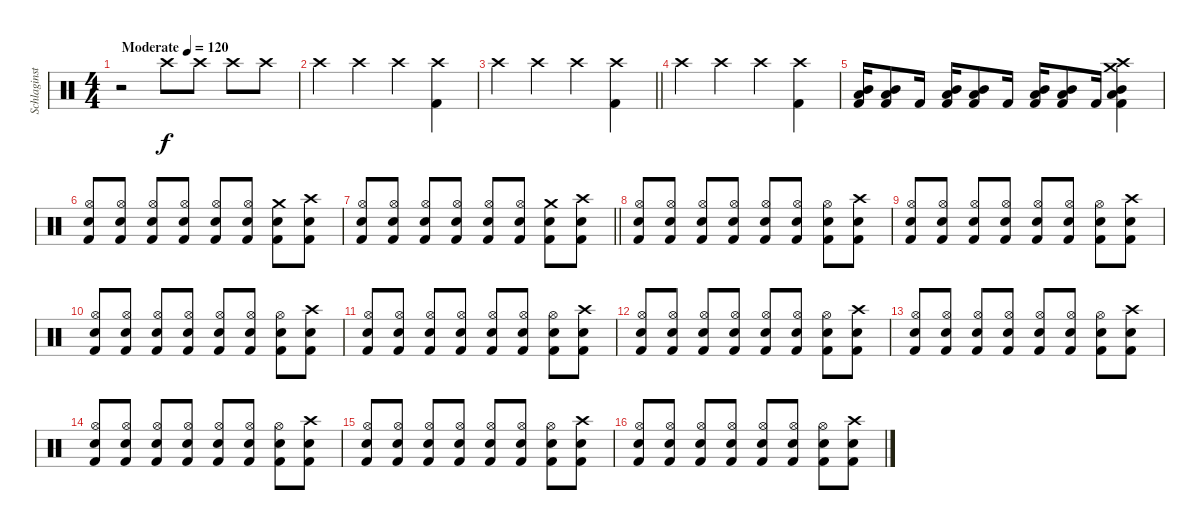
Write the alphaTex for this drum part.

\track ("Schlaginstrumente - Auswahl" "Schlaginst") {instrument percussion}
\staff {score}
\articulation defaults
\ts (4 4)
\tempo (120 "Moderate")
\clef neutral
\ks c
r.2{dy f} "Crash high (hit)".8 "Crash high (hit)".8 "Crash high (hit)".8 "Crash high (hit)".8 |
"Crash high (hit)".4 "Crash high (hit)".4 "Crash high (hit)".4 ("Crash high (hit)" "Kick (hit) 2").4 |
\barLineRight lightlight "Crash high (hit)".4 "Crash high (hit)".4 "Crash high (hit)".4
("Crash high (hit)" "Kick (hit) 2").4 |
"Crash high (hit)".4 "Crash high (hit)".4 "Crash high (hit)".4 ("Crash high (hit)" "Kick (hit) 2").4 |
("Low Tom (hit)" "Mid Tom (hit)" "Kick (hit) 2").16 ("Low Tom (hit)" "Mid Tom (hit)" "Kick (hit) 2").8 "Kick (hit) 2".16 ("Low Tom (hit)" "Mid Tom (hit)" "Kick (hit) 2").16 ("Low Tom (hit)" "Mid Tom (hit)" "Kick (hit) 2").8 "Kick (hit) 2".16 ("Low Tom (hit)" "Mid Tom (hit)" "Kick (hit) 2").16 ("Low Tom (hit)" "Mid Tom (hit)" "Kick (hit) 2").8 "Kick (hit) 2".16 ("Crash medium (hit)" "Crash high (hit)" "Low Tom (hit)" "Mid Tom (hit)" "Kick (hit) 2").4 |
("Hi-Hat (open)" "Snare (hit) 2" "Kick (hit) 2").8 ("Hi-Hat (open)" "Snare (hit) 2" "Kick (hit) 2").8 ("Hi-Hat (open)" "Snare (hit) 2" "Kick (hit) 2").8 ("Hi-Hat (open)" "Snare (hit) 2" "Kick (hit) 2").8 ("Hi-Hat (open)" "Snare (hit) 2" "Kick (hit) 2").8 ("Hi-Hat (open)" "Snare (hit) 2" "Kick (hit) 2").8 ("Crash medium (hit)" "Snare (hit) 2" "Kick (hit) 2").8 ("Crash high (hit)" "Snare (hit) 2" "Kick (hit) 2").8 |
\barLineRight lightlight
("Hi-Hat (open)" "Snare (hit) 2" "Kick (hit) 2").8 ("Hi-Hat (open)" "Snare (hit) 2" "Kick (hit) 2").8 ("Hi-Hat (open)" "Snare (hit) 2" "Kick (hit) 2").8 ("Hi-Hat (open)" "Snare (hit) 2" "Kick (hit) 2").8 ("Hi-Hat (open)" "Snare (hit) 2" "Kick (hit) 2").8 ("Hi-Hat (open)" "Snare (hit) 2" "Kick (hit) 2").8 ("Crash medium (hit)" "Snare (hit) 2" "Kick (hit) 2").8 ("Crash high (hit)" "Snare (hit) 2" "Kick (hit) 2").8 |
("Hi-Hat (open)" "Snare (hit) 2" "Kick (hit) 2").8 ("Hi-Hat (open)" "Snare (hit) 2" "Kick (hit) 2").8 ("Hi-Hat (open)" "Snare (hit) 2" "Kick (hit) 2").8 ("Hi-Hat (open)" "Snare (hit) 2" "Kick (hit) 2").8 ("Hi-Hat (open)" "Snare (hit) 2" "Kick (hit) 2").8 ("Hi-Hat (open)" "Snare (hit) 2" "Kick (hit) 2").8 ("Hi-Hat (open)" "Snare (hit) 2" "Kick (hit) 2").8 ("Crash high (hit)" "Snare (hit) 2" "Kick (hit) 2").8 |
("Hi-Hat (open)" "Snare (hit) 2" "Kick (hit) 2").8 ("Hi-Hat (open)" "Snare (hit) 2" "Kick (hit) 2").8 ("Hi-Hat (open)" "Snare (hit) 2" "Kick (hit) 2").8 ("Hi-Hat (open)" "Snare (hit) 2" "Kick (hit) 2").8 ("Hi-Hat (open)" "Snare (hit) 2" "Kick (hit) 2").8 ("Hi-Hat (open)" "Snare (hit) 2" "Kick (hit) 2").8 ("Hi-Hat (open)" "Snare (hit) 2" "Kick (hit) 2").8 ("Crash high (hit)" "Snare (hit) 2" "Kick (hit) 2").8 |
("Hi-Hat (open)" "Snare (hit) 2" "Kick (hit) 2").8 ("Hi-Hat (open)" "Snare (hit) 2" "Kick (hit) 2").8 ("Hi-Hat (open)" "Snare (hit) 2" "Kick (hit) 2").8 ("Hi-Hat (open)" "Snare (hit) 2" "Kick (hit) 2").8 ("Hi-Hat (open)" "Snare (hit) 2" "Kick (hit) 2").8 ("Hi-Hat (open)" "Snare (hit) 2" "Kick (hit) 2").8 ("Hi-Hat (open)" "Snare (hit) 2" "Kick (hit) 2").8 ("Crash high (hit)" "Snare (hit) 2" "Kick (hit) 2").8 |
("Hi-Hat (open)" "Snare (hit) 2" "Kick (hit) 2").8 ("Hi-Hat (open)" "Snare (hit) 2" "Kick (hit) 2").8 ("Hi-Hat (open)" "Snare (hit) 2" "Kick (hit) 2").8 ("Hi-Hat (open)" "Snare (hit) 2" "Kick (hit) 2").8 ("Hi-Hat (open)" "Snare (hit) 2" "Kick (hit) 2").8 ("Hi-Hat (open)" "Snare (hit) 2" "Kick (hit) 2").8 ("Hi-Hat (open)" "Snare (hit) 2" "Kick (hit) 2").8 ("Crash high (hit)" "Snare (hit) 2" "Kick (hit) 2").8 |
("Hi-Hat (open)" "Snare (hit) 2" "Kick (hit) 2").8 ("Hi-Hat (open)" "Snare (hit) 2" "Kick (hit) 2").8 ("Hi-Hat (open)" "Snare (hit) 2" "Kick (hit) 2").8 ("Hi-Hat (open)" "Snare (hit) 2" "Kick (hit) 2").8 ("Hi-Hat (open)" "Snare (hit) 2" "Kick (hit) 2").8 ("Hi-Hat (open)" "Snare (hit) 2" "Kick (hit) 2").8 ("Hi-Hat (open)" "Snare (hit) 2" "Kick (hit) 2").8 ("Crash high (hit)" "Snare (hit) 2" "Kick (hit) 2").8 |
("Hi-Hat (open)" "Snare (hit) 2" "Kick (hit) 2").8 ("Hi-Hat (open)" "Snare (hit) 2" "Kick (hit) 2").8 ("Hi-Hat (open)" "Snare (hit) 2" "Kick (hit) 2").8 ("Hi-Hat (open)" "Snare (hit) 2" "Kick (hit) 2").8 ("Hi-Hat (open)" "Snare (hit) 2" "Kick (hit) 2").8 ("Hi-Hat (open)" "Snare (hit) 2" "Kick (hit) 2").8 ("Hi-Hat (open)" "Snare (hit) 2" "Kick (hit) 2").8 ("Crash high (hit)" "Snare (hit) 2" "Kick (hit) 2").8 |
("Hi-Hat (open)" "Snare (hit) 2" "Kick (hit) 2").8 ("Hi-Hat (open)" "Snare (hit) 2" "Kick (hit) 2").8 ("Hi-Hat (open)" "Snare (hit) 2" "Kick (hit) 2").8 ("Hi-Hat (open)" "Snare (hit) 2" "Kick (hit) 2").8 ("Hi-Hat (open)" "Snare (hit) 2" "Kick (hit) 2").8 ("Hi-Hat (open)" "Snare (hit) 2" "Kick (hit) 2").8 ("Hi-Hat (open)" "Snare (hit) 2" "Kick (hit) 2").8 ("Crash high (hit)" "Snare (hit) 2" "Kick (hit) 2").8 |
("Hi-Hat (open)" "Snare (hit) 2" "Kick (hit) 2").8 ("Hi-Hat (open)" "Snare (hit) 2" "Kick (hit) 2").8 ("Hi-Hat (open)" "Snare (hit) 2" "Kick (hit) 2").8 ("Hi-Hat (open)" "Snare (hit) 2" "Kick (hit) 2").8 ("Hi-Hat (open)" "Snare (hit) 2" "Kick (hit) 2").8 ("Hi-Hat (open)" "Snare (hit) 2" "Kick (hit) 2").8 ("Hi-Hat (open)" "Snare (hit) 2" "Kick (hit) 2").8 ("Crash high (hit)" "Snare (hit) 2" "Kick (hit) 2").8 |
("Hi-Hat (open)" "Snare (hit) 2" "Kick (hit) 2").8 ("Hi-Hat (open)" "Snare (hit) 2" "Kick (hit) 2").8 ("Hi-Hat (open)" "Snare (hit) 2" "Kick (hit) 2").8 ("Hi-Hat (open)" "Snare (hit) 2" "Kick (hit) 2").8 ("Hi-Hat (open)" "Snare (hit) 2" "Kick (hit) 2").8 ("Hi-Hat (open)" "Snare (hit) 2" "Kick (hit) 2").8 ("Hi-Hat (open)" "Snare (hit) 2" "Kick (hit) 2").8 ("Crash high (hit)" "Snare (hit) 2" "Kick (hit) 2").8
